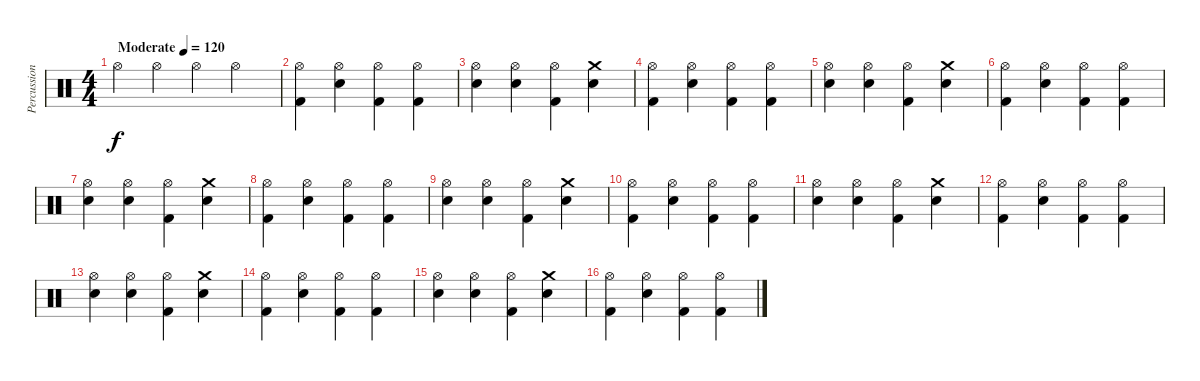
\track ("Percussion" "Percussion") {instrument percussion}
\staff {score}
\articulation defaults
\ts (4 4)
\tempo (120 "Moderate")
\clef neutral
\ks c "Hi-Hat (open)".4{dy f} "Hi-Hat (open)".4 "Hi-Hat (open)".4 "Hi-Hat (open)".2
|
("Kick (hit) 2" "Hi-Hat (open)").4 ("Snare (hit) 2" "Hi-Hat (open)").4 ("Kick (hit) 2" "Hi-Hat (open)").4 ("Kick (hit) 2" "Hi-Hat (open)").4 |
("Snare (hit) 2" "Hi-Hat (open)").4 ("Snare (hit) 2" "Hi-Hat (open)").4 ("Kick (hit) 2" "Hi-Hat (open)").4 ("Snare (hit) 2" "Crash medium (hit)").4 |
("Kick (hit) 2" "Hi-Hat (open)").4 ("Snare (hit) 2" "Hi-Hat (open)").4 ("Kick (hit) 2" "Hi-Hat (open)").4 ("Kick (hit) 2" "Hi-Hat (open)").4 |
("Snare (hit) 2" "Hi-Hat (open)").4 ("Snare (hit) 2" "Hi-Hat (open)").4 ("Kick (hit) 2" "Hi-Hat (open)").4 ("Snare (hit) 2" "Crash medium (hit)").4 |
("Kick (hit) 2" "Hi-Hat (open)").4 ("Snare (hit) 2" "Hi-Hat (open)").4 ("Kick (hit) 2" "Hi-Hat (open)").4 ("Kick (hit) 2" "Hi-Hat (open)").4 |
("Snare (hit) 2" "Hi-Hat (open)").4 ("Snare (hit) 2" "Hi-Hat (open)").4 ("Kick (hit) 2" "Hi-Hat (open)").4 ("Snare (hit) 2" "Crash medium (hit)").4 |
("Kick (hit) 2" "Hi-Hat (open)").4 ("Snare (hit) 2" "Hi-Hat (open)").4 ("Kick (hit) 2" "Hi-Hat (open)").4 ("Kick (hit) 2" "Hi-Hat (open)").4 |
("Snare (hit) 2" "Hi-Hat (open)").4 ("Snare (hit) 2" "Hi-Hat (open)").4 ("Kick (hit) 2" "Hi-Hat (open)").4 ("Snare (hit) 2" "Crash medium (hit)").4 |
("Kick (hit) 2" "Hi-Hat (open)").4 ("Snare (hit) 2" "Hi-Hat (open)").4 ("Kick (hit) 2" "Hi-Hat (open)").4 ("Kick (hit) 2" "Hi-Hat (open)").4 |
("Snare (hit) 2" "Hi-Hat (open)").4 ("Snare (hit) 2" "Hi-Hat (open)").4 ("Kick (hit) 2" "Hi-Hat (open)").4 ("Snare (hit) 2" "Crash medium (hit)").4 |
("Kick (hit) 2" "Hi-Hat (open)").4 ("Snare (hit) 2" "Hi-Hat (open)").4 ("Kick (hit) 2" "Hi-Hat (open)").4 ("Kick (hit) 2" "Hi-Hat (open)").4 |
("Snare (hit) 2" "Hi-Hat (open)").4 ("Snare (hit) 2" "Hi-Hat (open)").4 ("Kick (hit) 2" "Hi-Hat (open)").4 ("Snare (hit) 2" "Crash medium (hit)").4 |
("Kick (hit) 2" "Hi-Hat (open)").4 ("Snare (hit) 2" "Hi-Hat (open)").4 ("Kick (hit) 2" "Hi-Hat (open)").4 ("Kick (hit) 2" "Hi-Hat (open)").4 |
("Snare (hit) 2" "Hi-Hat (open)").4 ("Snare (hit) 2" "Hi-Hat (open)").4 ("Kick (hit) 2" "Hi-Hat (open)").4 ("Snare (hit) 2" "Crash medium (hit)").4 |
("Kick (hit) 2" "Hi-Hat (open)").4 ("Snare (hit) 2" "Hi-Hat (open)").4 ("Kick (hit) 2" "Hi-Hat (open)").4 ("Kick (hit) 2" "Hi-Hat (open)").4
